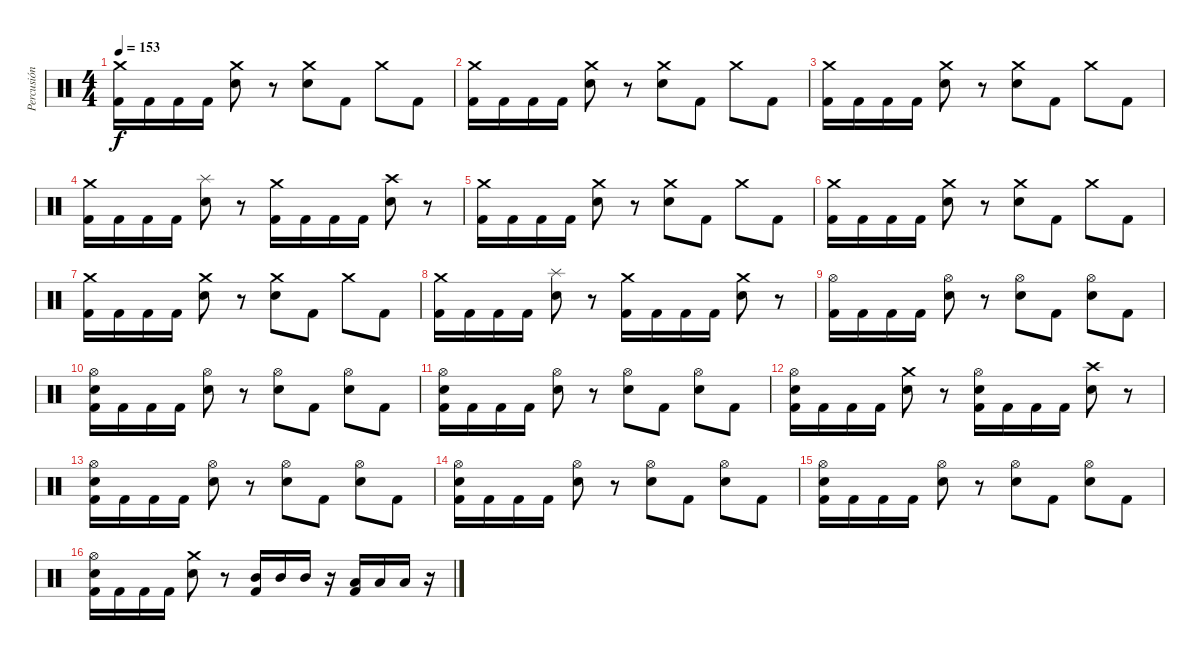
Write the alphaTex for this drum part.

\track ("Percusión" "Percusión") {instrument percussion}
\staff {score}
\articulation defaults
\ts (4 4)
\tempo 153
\clef neutral
\ks c
("Crash medium (hit)" "Kick (hit) 2").16{dy f} "Kick (hit) 2".16 "Kick (hit) 2".16 "Kick (hit) 2".16 ("Crash medium (hit)" "Electric Snare (hit)").8 r.8 ("Crash medium (hit)" "Electric Snare (hit)").8 "Kick (hit) 2".8 "Crash medium (hit)".8 "Kick (hit) 2".8 |
("Crash medium (hit)" "Kick (hit) 2").16 "Kick (hit) 2".16 "Kick (hit) 2".16 "Kick (hit) 2".16 ("Crash medium (hit)" "Electric Snare (hit)").8 r.8 ("Crash medium (hit)" "Electric Snare (hit)").8 "Kick (hit) 2".8 "Crash medium (hit)".8 "Kick (hit) 2".8 |
("Crash medium (hit)" "Kick (hit) 2").16 "Kick (hit) 2".16 "Kick (hit) 2".16 "Kick (hit) 2".16 ("Crash medium (hit)" "Electric Snare (hit)").8 r.8 ("Crash medium (hit)" "Electric Snare (hit)").8 "Kick (hit) 2".8 "Crash medium (hit)".8 "Kick (hit) 2".8 |
("Crash medium (hit)" "Kick (hit) 2").16 "Kick (hit) 2".16 "Kick (hit) 2".16 "Kick (hit) 2".16 ("Splash (hit)" "Electric Snare (hit)").8 r.8 ("Crash medium (hit)" "Kick (hit) 2").16 "Kick (hit) 2".16 "Kick (hit) 2".16 "Kick (hit) 2".16 ("Crash high (hit)" "Electric Snare (hit)").8 r.8 |
("Crash medium (hit)" "Kick (hit) 2").16 "Kick (hit) 2".16 "Kick (hit) 2".16 "Kick (hit) 2".16 ("Crash medium (hit)" "Electric Snare (hit)").8 r.8 ("Crash medium (hit)" "Electric Snare (hit)").8 "Kick (hit) 2".8 "Crash medium (hit)".8 "Kick (hit) 2".8 |
("Crash medium (hit)" "Kick (hit) 2").16 "Kick (hit) 2".16 "Kick (hit) 2".16 "Kick (hit) 2".16 ("Crash medium (hit)" "Electric Snare (hit)").8 r.8 ("Crash medium (hit)" "Electric Snare (hit)").8 "Kick (hit) 2".8 "Crash medium (hit)".8 "Kick (hit) 2".8 |
("Crash medium (hit)" "Kick (hit) 2").16 "Kick (hit) 2".16 "Kick (hit) 2".16 "Kick (hit) 2".16 ("Crash medium (hit)" "Electric Snare (hit)").8 r.8 ("Crash medium (hit)" "Electric Snare (hit)").8 "Kick (hit) 2".8 "Crash medium (hit)".8 "Kick (hit) 2".8 |
("Crash medium (hit)" "Kick (hit) 2").16 "Kick (hit) 2".16 "Kick (hit) 2".16 "Kick (hit) 2".16 ("Splash (hit)" "Electric Snare (hit)").8 r.8 ("Crash medium (hit)" "Kick (hit) 2").16 "Kick (hit) 2".16 "Kick (hit) 2".16 "Kick (hit) 2".16 ("Crash medium (hit)" "Electric Snare (hit)").8 r.8 |
("Hi-Hat (open)" "Kick (hit) 2").16 "Kick (hit) 2".16 "Kick (hit) 2".16 "Kick (hit) 2".16 ("Hi-Hat (open)" "Electric Snare (hit)").8 r.8 ("Hi-Hat (open)" "Electric Snare (hit)").8 "Kick (hit) 2".8 ("Hi-Hat (open)" "Electric Snare (hit)").8 "Kick (hit) 2".8 |
("Hi-Hat (open)" "Electric Snare (hit)" "Kick (hit) 2").16 "Kick (hit) 2".16 "Kick (hit) 2".16 "Kick (hit) 2".16 ("Hi-Hat (open)" "Electric Snare (hit)").8 r.8 ("Hi-Hat (open)" "Electric Snare (hit)").8 "Kick (hit) 2".8 ("Hi-Hat (open)" "Electric Snare (hit)").8 "Kick (hit) 2".8 |
("Hi-Hat (open)" "Electric Snare (hit)" "Kick (hit) 2").16 "Kick (hit) 2".16 "Kick (hit) 2".16 "Kick (hit) 2".16 ("Hi-Hat (open)" "Electric Snare (hit)").8 r.8 ("Hi-Hat (open)" "Electric Snare (hit)").8 "Kick (hit) 2".8 ("Hi-Hat (open)" "Electric Snare (hit)").8 "Kick (hit) 2".8 |
("Hi-Hat (open)" "Electric Snare (hit)" "Kick (hit) 2").16 "Kick (hit) 2".16 "Kick (hit) 2".16 "Kick (hit) 2".16 ("Crash medium (hit)" "Electric Snare (hit)").8 r.8 ("Hi-Hat (open)" "Electric Snare (hit)" "Kick (hit) 2").16 "Kick (hit) 2".16 "Kick (hit) 2".16 "Kick (hit) 2".16 ("Crash high (hit)" "Electric Snare (hit)").8 r.8 |
("Hi-Hat (open)" "Electric Snare (hit)" "Kick (hit) 2").16 "Kick (hit) 2".16 "Kick (hit) 2".16 "Kick (hit) 2".16 ("Hi-Hat (open)" "Electric Snare (hit)").8 r.8 ("Hi-Hat (open)" "Electric Snare (hit)").8 "Kick (hit) 2".8 ("Hi-Hat (open)" "Electric Snare (hit)").8 "Kick (hit) 2".8 |
("Hi-Hat (open)" "Electric Snare (hit)" "Kick (hit) 2").16 "Kick (hit) 2".16 "Kick (hit) 2".16 "Kick (hit) 2".16 ("Hi-Hat (open)" "Electric Snare (hit)").8 r.8 ("Hi-Hat (open)" "Electric Snare (hit)").8 "Kick (hit) 2".8 ("Hi-Hat (open)" "Electric Snare (hit)").8 "Kick (hit) 2".8 |
("Hi-Hat (open)" "Electric Snare (hit)" "Kick (hit) 2").16 "Kick (hit) 2".16 "Kick (hit) 2".16 "Kick (hit) 2".16 ("Hi-Hat (open)" "Electric Snare (hit)").8 r.8 ("Hi-Hat (open)" "Electric Snare (hit)").8 "Kick (hit) 2".8 ("Hi-Hat (open)" "Electric Snare (hit)").8 "Kick (hit) 2".8 |
("Hi-Hat (open)" "Electric Snare (hit)" "Kick (hit) 2").16 "Kick (hit) 2".16 "Kick (hit) 2".16 "Kick (hit) 2".16 ("Crash medium (hit)" "Electric Snare (hit)").8 r.8 ("Mid Tom (hit)" "Kick (hit) 2").16 "Mid Tom (hit)".16 "Mid Tom (hit)".16 r.16 ("Low Tom (hit)" "Kick (hit) 2").16 "Low Tom (hit)".16 "Low Tom (hit)".16 r.16
